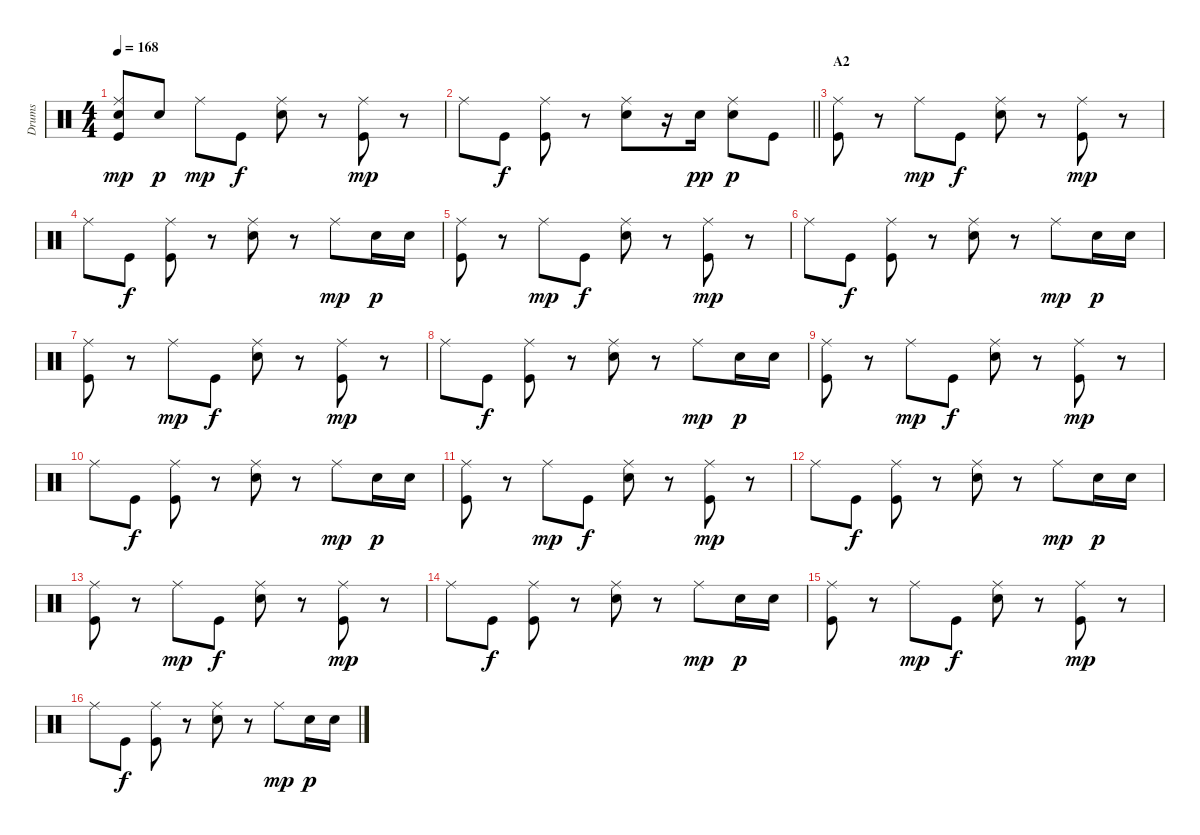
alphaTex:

\track ("Drums" "Drums") {instrument percussion}
\staff {score}
\articulation defaults
\ts (4 4)
\tempo 168
\clef neutral
\ks c
("Electric Snare (hit)" "Ride (middle)" "Kick (hit)").8{dy mp} "Electric Snare (hit)".8{dy p} "Ride (middle)".8{dy mp} "Kick (hit)".8{dy f} ("Ride (middle)" "Electric Snare (hit)").8 r.8 ("Ride (middle)" "Kick (hit)").8{dy mp} r.8 |
\barLineRight lightlight "Ride (middle)".8 "Kick (hit)".8{dy f}
("Ride (middle)" "Kick (hit)").8 r.8 ("Ride (middle)" "Electric Snare (hit)").8 r.16 "Electric Snare (hit)".16{dy pp} ("Ride (middle)" "Electric Snare (hit)").8{dy p} "Kick (hit)".8 |
\section ("" "A2")
("Ride (middle)" "Kick (hit)").8 r.8 "Ride (middle)".8{dy mp} "Kick (hit)".8{dy f} ("Ride (middle)" "Electric Snare (hit)").8 r.8 ("Ride (middle)" "Kick (hit)").8{dy mp} r.8 |
"Ride (middle)".8 "Kick (hit)".8{dy f} ("Ride (middle)" "Kick (hit)").8 r.8 ("Ride (middle)" "Electric Snare (hit)").8 r.8 "Ride (middle)".8{dy mp} "Electric Snare (hit)".16{dy p} "Electric Snare (hit)".16 |
("Ride (middle)" "Kick (hit)").8 r.8 "Ride (middle)".8{dy mp} "Kick (hit)".8{dy f} ("Ride (middle)" "Electric Snare (hit)").8 r.8 ("Ride (middle)" "Kick (hit)").8{dy mp} r.8 |
"Ride (middle)".8 "Kick (hit)".8{dy f} ("Ride (middle)" "Kick (hit)").8 r.8 ("Ride (middle)" "Electric Snare (hit)").8 r.8 "Ride (middle)".8{dy mp} "Electric Snare (hit)".16{dy p} "Electric Snare (hit)".16 |
("Ride (middle)" "Kick (hit)").8 r.8 "Ride (middle)".8{dy mp} "Kick (hit)".8{dy f} ("Ride (middle)" "Electric Snare (hit)").8 r.8 ("Ride (middle)" "Kick (hit)").8{dy mp} r.8 |
"Ride (middle)".8 "Kick (hit)".8{dy f} ("Ride (middle)" "Kick (hit)").8 r.8 ("Ride (middle)" "Electric Snare (hit)").8 r.8 "Ride (middle)".8{dy mp} "Electric Snare (hit)".16{dy p} "Electric Snare (hit)".16 |
("Ride (middle)" "Kick (hit)").8 r.8 "Ride (middle)".8{dy mp} "Kick (hit)".8{dy f} ("Ride (middle)" "Electric Snare (hit)").8 r.8 ("Ride (middle)" "Kick (hit)").8{dy mp} r.8 |
"Ride (middle)".8 "Kick (hit)".8{dy f} ("Ride (middle)" "Kick (hit)").8 r.8 ("Ride (middle)" "Electric Snare (hit)").8 r.8 "Ride (middle)".8{dy mp} "Electric Snare (hit)".16{dy p} "Electric Snare (hit)".16 |
("Ride (middle)" "Kick (hit)").8 r.8 "Ride (middle)".8{dy mp} "Kick (hit)".8{dy f} ("Ride (middle)" "Electric Snare (hit)").8 r.8 ("Ride (middle)" "Kick (hit)").8{dy mp} r.8 |
"Ride (middle)".8 "Kick (hit)".8{dy f} ("Ride (middle)" "Kick (hit)").8 r.8 ("Ride (middle)" "Electric Snare (hit)").8 r.8 "Ride (middle)".8{dy mp} "Electric Snare (hit)".16{dy p} "Electric Snare (hit)".16 |
("Ride (middle)" "Kick (hit)").8 r.8 "Ride (middle)".8{dy mp} "Kick (hit)".8{dy f} ("Ride (middle)" "Electric Snare (hit)").8 r.8 ("Ride (middle)" "Kick (hit)").8{dy mp} r.8 |
"Ride (middle)".8 "Kick (hit)".8{dy f} ("Ride (middle)" "Kick (hit)").8 r.8 ("Ride (middle)" "Electric Snare (hit)").8 r.8 "Ride (middle)".8{dy mp} "Electric Snare (hit)".16{dy p} "Electric Snare (hit)".16 |
("Ride (middle)" "Kick (hit)").8 r.8 "Ride (middle)".8{dy mp} "Kick (hit)".8{dy f} ("Ride (middle)" "Electric Snare (hit)").8 r.8 ("Ride (middle)" "Kick (hit)").8{dy mp} r.8 |
"Ride (middle)".8 "Kick (hit)".8{dy f} ("Ride (middle)" "Kick (hit)").8 r.8 ("Ride (middle)" "Electric Snare (hit)").8 r.8 "Ride (middle)".8{dy mp} "Electric Snare (hit)".16{dy p} "Electric Snare (hit)".16
